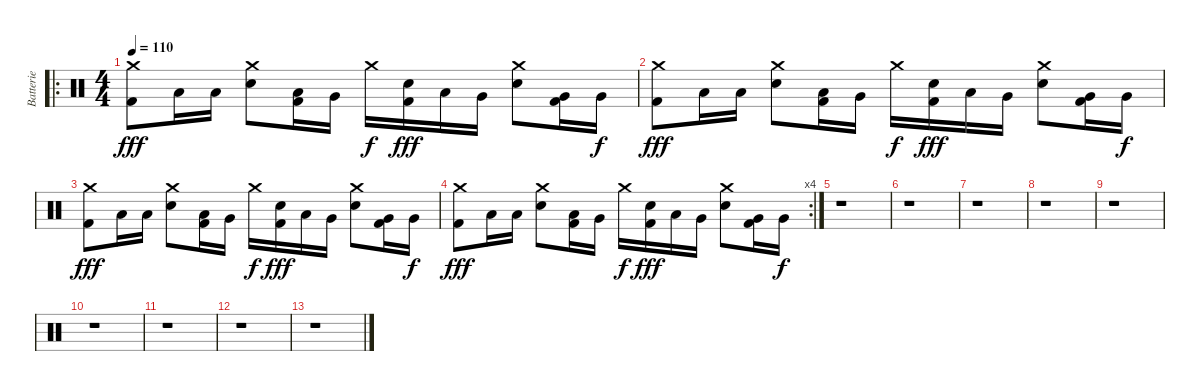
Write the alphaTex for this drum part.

\track ("Batterie" "Batterie") {instrument percussion}
\staff {score}
\articulation defaults
\ro
\ts (4 4)
\tempo 110
\clef neutral
\ks c
("Crash medium (hit)" "Kick (hit) 2").8{dy fff} "Low Tom (hit)".16 "Low Tom (hit)".16 ("Crash medium (hit)" "Snare (hit) 2").8 ("Low Tom (hit)" "Kick (hit) 2").16 "Very Low Tom (hit)".16 "Crash medium (hit)".16{dy f} ("Snare (hit) 2" "Kick (hit) 2").16{dy fff} "Low Tom (hit)".16 "Very Low Tom (hit)".16 ("Crash medium (hit)" "Snare (hit) 2").8 ("Very Low Tom (hit)" "Kick (hit) 2").16 "Very Low Tom (hit)".16{dy f} |
("Crash medium (hit)" "Kick (hit) 2").8{dy fff} "Low Tom (hit)".16 "Low Tom (hit)".16 ("Crash medium (hit)" "Snare (hit) 2").8 ("Low Tom (hit)" "Kick (hit) 2").16 "Very Low Tom (hit)".16 "Crash medium (hit)".16{dy f} ("Snare (hit) 2" "Kick (hit) 2").16{dy fff} "Low Tom (hit)".16 "Very Low Tom (hit)".16 ("Crash medium (hit)" "Snare (hit) 2").8 ("Very Low Tom (hit)" "Kick (hit) 2").16 "Very Low Tom (hit)".16{dy f} |
("Crash medium (hit)" "Kick (hit) 2").8{dy fff} "Low Tom (hit)".16 "Low Tom (hit)".16 ("Crash medium (hit)" "Snare (hit) 2").8 ("Low Tom (hit)" "Kick (hit) 2").16 "Very Low Tom (hit)".16 "Crash medium (hit)".16{dy f} ("Snare (hit) 2" "Kick (hit) 2").16{dy fff} "Low Tom (hit)".16 "Very Low Tom (hit)".16 ("Crash medium (hit)" "Snare (hit) 2").8 ("Very Low Tom (hit)" "Kick (hit) 2").16 "Very Low Tom (hit)".16{dy f} |
\rc 4
("Crash medium (hit)" "Kick (hit) 2").8{dy fff} "Low Tom (hit)".16 "Low Tom (hit)".16 ("Crash medium (hit)" "Snare (hit) 2").8 ("Low Tom (hit)" "Kick (hit) 2").16 "Very Low Tom (hit)".16 "Crash medium (hit)".16{dy f} ("Snare (hit) 2" "Kick (hit) 2").16{dy fff} "Low Tom (hit)".16 "Very Low Tom (hit)".16 ("Crash medium (hit)" "Snare (hit) 2").8 ("Very Low Tom (hit)" "Kick (hit) 2").16 "Very Low Tom (hit)".16{dy f} |
r.1 |
r.1 |
r.1 |
r.1 |
r.1 |
r.1 |
r.1 |
r.1 |
r.1
